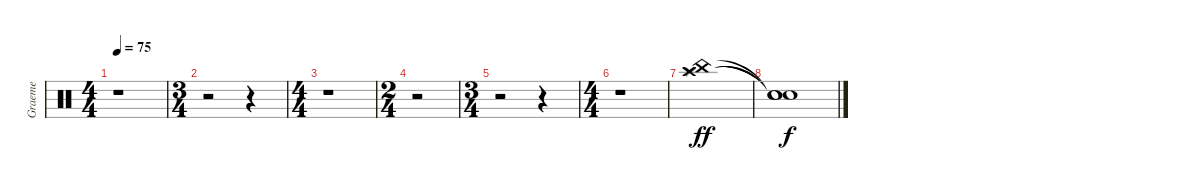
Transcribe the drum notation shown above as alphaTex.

\track ("Graeme" "Graeme") {instrument percussion}
\staff {score}
\articulation defaults
\ts (4 4)
\tempo 75
\clef neutral
\ks c
r.1{dy ff} |
\ts (3 4)
r.2 r.4 |
\ts (4 4)
r.1 |
\ts (2 4)
r.2 |
\ts (3 4)
r.2 r.4 |
\ts (4 4)
r.1 |
("China (hit)" "Crash high (hit)" "Splash (hit)").1 |
("Snare (hit)"{t} "Snare (hit)"{t} "Snare (hit)"{t}).1{dy f}
